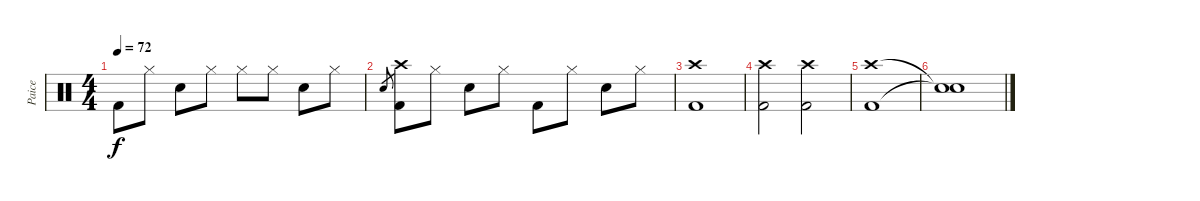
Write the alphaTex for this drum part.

\track ("Paice" "Paice") {instrument percussion}
\staff {score}
\articulation defaults
\ts (4 4)
\tempo 72
\clef neutral
\ks c "Kick (hit) 2".8{dy f} "Hi-Hat (closed)".8 "Electric Snare (hit)".8 "Hi-Hat (closed)".8 "Hi-Hat (closed)".8 "Hi-Hat (closed)".8 "Electric Snare (hit)".8 "Hi-Hat (closed)".8
|
"Electric Snare (hit)".8{gr} ("Crash high (hit)" "Kick (hit) 2").8 "Hi-Hat (closed)".8 "Electric Snare (hit)".8 "Hi-Hat (closed)".8 "Kick (hit) 2".8 "Hi-Hat (closed)".8 "Electric Snare (hit)".8 "Hi-Hat (closed)".8 |
("Crash high (hit)" "Kick (hit) 2").1 |
("Crash high (hit)" "Kick (hit) 2").2 ("Crash high (hit)" "Kick (hit) 2").2 |
("Crash high (hit)" "Kick (hit) 2").1 |
("Snare (hit)"{t} "Snare (hit)"{t}).1
